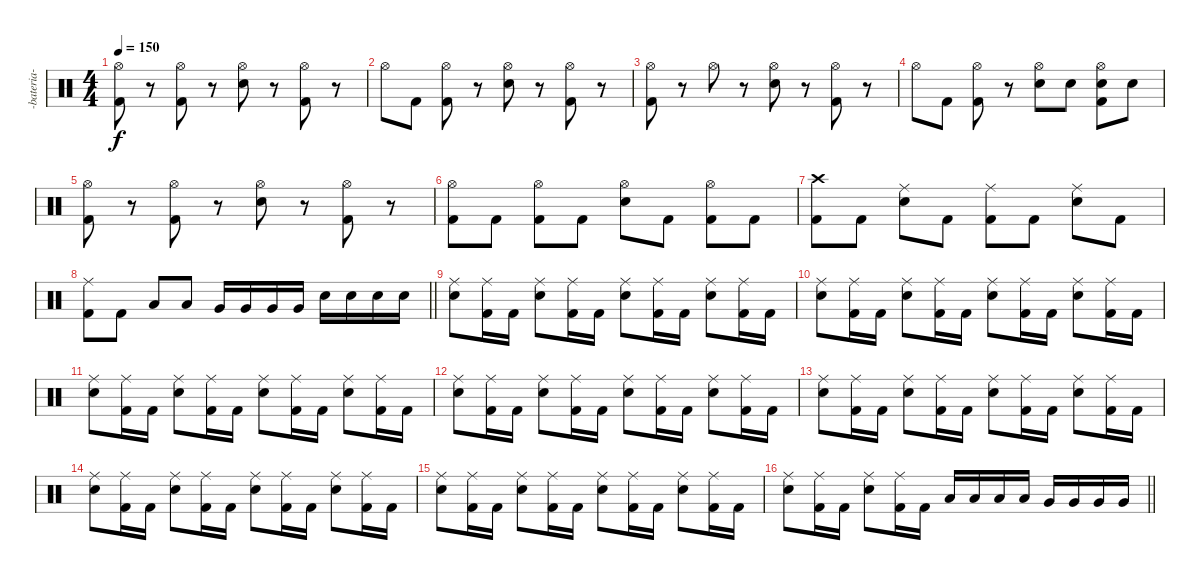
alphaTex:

\track ("-bateria-" "-bateria-") {instrument percussion}
\staff {score}
\articulation defaults
\ts (4 4)
\tempo 150
\clef neutral
\ks c
("Hi-Hat (open)" "Kick (hit) 2").8{dy f} r.8 ("Hi-Hat (open)" "Kick (hit) 2").8 r.8 ("Hi-Hat (open)" "Electric Snare (hit)").8 r.8 ("Hi-Hat (open)" "Kick (hit) 2").8 r.8 |
"Hi-Hat (open)".8 "Kick (hit) 2".8 ("Hi-Hat (open)" "Kick (hit) 2").8 r.8 ("Hi-Hat (open)" "Electric Snare (hit)").8 r.8 ("Hi-Hat (open)" "Kick (hit) 2").8 r.8 |
("Hi-Hat (open)" "Kick (hit) 2").8 r.8 "Hi-Hat (open)".8 r.8 ("Hi-Hat (open)" "Electric Snare (hit)").8 r.8 ("Hi-Hat (open)" "Kick (hit) 2").8 r.8 |
"Hi-Hat (open)".8 "Kick (hit) 2".8 ("Hi-Hat (open)" "Kick (hit) 2").8 r.8 ("Hi-Hat (open)" "Electric Snare (hit)").8 "Electric Snare (hit)".8 ("Hi-Hat (open)" "Electric Snare (hit)" "Kick (hit) 2").8 "Electric Snare (hit)".8 |
("Hi-Hat (open)" "Kick (hit) 2").8 r.8 ("Hi-Hat (open)" "Kick (hit) 2").8 r.8 ("Hi-Hat (open)" "Electric Snare (hit)").8 r.8 ("Hi-Hat (open)" "Kick (hit) 2").8 r.8 |
("Hi-Hat (open)" "Kick (hit) 2").8 "Kick (hit) 2".8 ("Hi-Hat (open)" "Kick (hit) 2").8 "Kick (hit) 2".8 ("Hi-Hat (open)" "Electric Snare (hit)").8 "Kick (hit) 2".8 ("Hi-Hat (open)" "Kick (hit) 2").8 "Kick (hit) 2".8 |
("Crash high (hit)" "Kick (hit) 2").8 "Kick (hit) 2".8 ("Ride (middle)" "Electric Snare (hit)").8 "Kick (hit) 2".8 ("Ride (middle)" "Kick (hit) 2").8 "Kick (hit) 2".8 ("Ride (middle)" "Electric Snare (hit)").8 "Kick (hit) 2".8 |
\barLineRight lightlight
("Ride (middle)" "Kick (hit) 2").8 "Kick (hit) 2".8 "Low Tom (hit)".8 "Low Tom (hit)".8 "Very Low Tom (hit)".16 "Very Low Tom (hit)".16 "Very Low Tom (hit)".16 "Very Low Tom (hit)".16 "Electric Snare (hit)".16 "Electric Snare (hit)".16 "Electric Snare (hit)".16 "Electric Snare (hit)".16 |
\section ("" "")
("Ride (middle)" "Electric Snare (hit)").8 ("Ride (middle)" "Kick (hit) 2").16 "Kick (hit) 2".16 ("Ride (middle)" "Electric Snare (hit)").8 ("Ride (middle)" "Kick (hit) 2").16 "Kick (hit) 2".16 ("Ride (middle)" "Electric Snare (hit)").8 ("Ride (middle)" "Kick (hit) 2").16 "Kick (hit) 2".16 ("Ride (middle)" "Electric Snare (hit)").8 ("Ride (middle)" "Kick (hit) 2").16 "Kick (hit) 2".16 |
("Ride (middle)" "Electric Snare (hit)").8 ("Ride (middle)" "Kick (hit) 2").16 "Kick (hit) 2".16 ("Ride (middle)" "Electric Snare (hit)").8 ("Ride (middle)" "Kick (hit) 2").16 "Kick (hit) 2".16 ("Ride (middle)" "Electric Snare (hit)").8 ("Ride (middle)" "Kick (hit) 2").16 "Kick (hit) 2".16 ("Ride (middle)" "Electric Snare (hit)").8 ("Ride (middle)" "Kick (hit) 2").16 "Kick (hit) 2".16 |
("Ride (middle)" "Electric Snare (hit)").8 ("Ride (middle)" "Kick (hit) 2").16 "Kick (hit) 2".16 ("Ride (middle)" "Electric Snare (hit)").8 ("Ride (middle)" "Kick (hit) 2").16 "Kick (hit) 2".16 ("Ride (middle)" "Electric Snare (hit)").8 ("Ride (middle)" "Kick (hit) 2").16 "Kick (hit) 2".16 ("Ride (middle)" "Electric Snare (hit)").8 ("Ride (middle)" "Kick (hit) 2").16 "Kick (hit) 2".16 |
("Ride (middle)" "Electric Snare (hit)").8 ("Ride (middle)" "Kick (hit) 2").16 "Kick (hit) 2".16 ("Ride (middle)" "Electric Snare (hit)").8 ("Ride (middle)" "Kick (hit) 2").16 "Kick (hit) 2".16 ("Ride (middle)" "Electric Snare (hit)").8 ("Ride (middle)" "Kick (hit) 2").16 "Kick (hit) 2".16 ("Ride (middle)" "Electric Snare (hit)").8 ("Ride (middle)" "Kick (hit) 2").16 "Kick (hit) 2".16 |
("Ride (middle)" "Electric Snare (hit)").8 ("Ride (middle)" "Kick (hit) 2").16 "Kick (hit) 2".16 ("Ride (middle)" "Electric Snare (hit)").8 ("Ride (middle)" "Kick (hit) 2").16 "Kick (hit) 2".16 ("Ride (middle)" "Electric Snare (hit)").8 ("Ride (middle)" "Kick (hit) 2").16 "Kick (hit) 2".16 ("Ride (middle)" "Electric Snare (hit)").8 ("Ride (middle)" "Kick (hit) 2").16 "Kick (hit) 2".16 |
("Ride (middle)" "Electric Snare (hit)").8 ("Ride (middle)" "Kick (hit) 2").16 "Kick (hit) 2".16 ("Ride (middle)" "Electric Snare (hit)").8 ("Ride (middle)" "Kick (hit) 2").16 "Kick (hit) 2".16 ("Ride (middle)" "Electric Snare (hit)").8 ("Ride (middle)" "Kick (hit) 2").16 "Kick (hit) 2".16 ("Ride (middle)" "Electric Snare (hit)").8 ("Ride (middle)" "Kick (hit) 2").16 "Kick (hit) 2".16 |
("Ride (middle)" "Electric Snare (hit)").8 ("Ride (middle)" "Kick (hit) 2").16 "Kick (hit) 2".16 ("Ride (middle)" "Electric Snare (hit)").8 ("Ride (middle)" "Kick (hit) 2").16 "Kick (hit) 2".16 ("Ride (middle)" "Electric Snare (hit)").8 ("Ride (middle)" "Kick (hit) 2").16 "Kick (hit) 2".16 ("Ride (middle)" "Electric Snare (hit)").8 ("Ride (middle)" "Kick (hit) 2").16 "Kick (hit) 2".16 |
\barLineRight lightlight
("Ride (middle)" "Electric Snare (hit)").8 ("Ride (middle)" "Kick (hit) 2").16 "Kick (hit) 2".16 ("Ride (middle)" "Electric Snare (hit)").8 ("Ride (middle)" "Kick (hit) 2").16 "Kick (hit) 2".16 "Low Tom (hit)".16 "Low Tom (hit)".16 "Low Tom (hit)".16 "Low Tom (hit)".16 "Very Low Tom (hit)".16 "Very Low Tom (hit)".16 "Very Low Tom (hit)".16 "Very Low Tom (hit)".16
